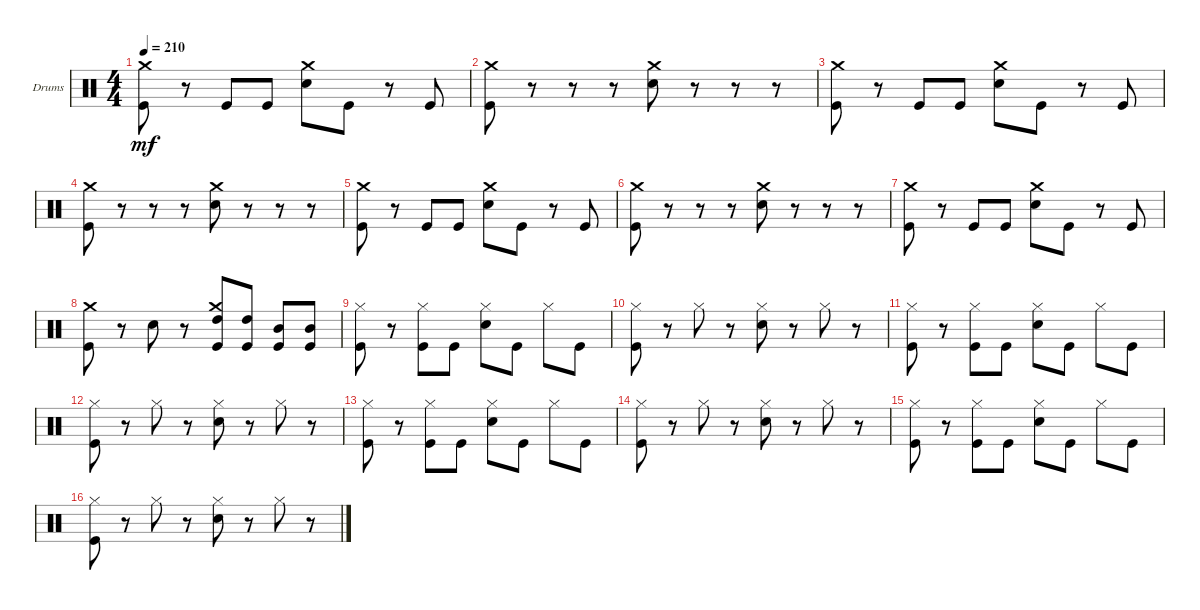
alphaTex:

\defaultSystemsLayout 4
\bracketExtendMode groupsimilarinstruments
\firstSystemTrackNameOrientation horizontal
\otherSystemsTrackNameOrientation horizontal
\track ("Dan Johnson (Drums)" "Drums") {instrument percussion}
\staff {score}
\articulation defaults
\ts (4 4)
\tempo 210
\clef neutral
\ks c
("Kick (hit)" "Crash medium (hit)").8{dy mf} r.8 "Kick (hit)".8 "Kick (hit)".8 ("Snare (hit) 2" "Crash medium (hit)").8 "Kick (hit)".8 r.8 "Kick (hit)".8 |
("Kick (hit)" "Crash medium (hit)").8 r.8 r.8 r.8 ("Snare (hit) 2" "Crash medium (hit)").8 r.8 r.8 r.8 |
("Kick (hit)" "Crash medium (hit)").8 r.8 "Kick (hit)".8 "Kick (hit)".8 ("Snare (hit) 2" "Crash medium (hit)").8 "Kick (hit)".8 r.8 "Kick (hit)".8 |
("Kick (hit)" "Crash medium (hit)").8 r.8 r.8 r.8 ("Snare (hit) 2" "Crash medium (hit)").8 r.8 r.8 r.8 |
("Kick (hit)" "Crash medium (hit)").8 r.8 "Kick (hit)".8 "Kick (hit)".8 ("Snare (hit) 2" "Crash medium (hit)").8 "Kick (hit)".8 r.8 "Kick (hit)".8 |
("Kick (hit)" "Crash medium (hit)").8 r.8 r.8 r.8 ("Snare (hit) 2" "Crash medium (hit)").8 r.8 r.8 r.8 |
("Kick (hit)" "Crash medium (hit)").8 r.8 "Kick (hit)".8 "Kick (hit)".8 ("Snare (hit) 2" "Crash medium (hit)").8 "Kick (hit)".8 r.8 "Kick (hit)".8 |
("Crash medium (hit)" "Kick (hit)").8 r.8 "Snare (hit) 2".8 r.8 ("Crash medium (hit)" "High Tom (hit)" "Kick (hit)").8 ("High Tom (hit)" "Kick (hit)").8 ("Mid Tom (hit)" "Kick (hit)").8 ("Mid Tom (hit)" "Kick (hit)").8 |
("Kick (hit)" "Hi-Hat (closed)").8 r.8 ("Kick (hit)" "Hi-Hat (closed)").8 "Kick (hit)".8 ("Snare (hit) 2" "Hi-Hat (closed)").8 "Kick (hit)".8 "Hi-Hat (closed)".8 "Kick (hit)".8 |
("Kick (hit)" "Hi-Hat (closed)").8 r.8 "Hi-Hat (closed)".8 r.8 ("Snare (hit) 2" "Hi-Hat (closed)").8 r.8 "Hi-Hat (closed)".8 r.8 |
("Kick (hit)" "Hi-Hat (closed)").8 r.8 ("Kick (hit)" "Hi-Hat (closed)").8 "Kick (hit)".8 ("Snare (hit) 2" "Hi-Hat (closed)").8 "Kick (hit)".8 "Hi-Hat (closed)".8 "Kick (hit)".8 |
("Kick (hit)" "Hi-Hat (closed)").8 r.8 "Hi-Hat (closed)".8 r.8 ("Snare (hit) 2" "Hi-Hat (closed)").8 r.8 "Hi-Hat (closed)".8 r.8 |
("Kick (hit)" "Hi-Hat (closed)").8 r.8 ("Kick (hit)" "Hi-Hat (closed)").8 "Kick (hit)".8 ("Snare (hit) 2" "Hi-Hat (closed)").8 "Kick (hit)".8 "Hi-Hat (closed)".8 "Kick (hit)".8 |
("Kick (hit)" "Hi-Hat (closed)").8 r.8 "Hi-Hat (closed)".8 r.8 ("Snare (hit) 2" "Hi-Hat (closed)").8 r.8 "Hi-Hat (closed)".8 r.8 |
("Kick (hit)" "Hi-Hat (closed)").8 r.8 ("Kick (hit)" "Hi-Hat (closed)").8 "Kick (hit)".8 ("Snare (hit) 2" "Hi-Hat (closed)").8 "Kick (hit)".8 "Hi-Hat (closed)".8 "Kick (hit)".8 |
("Kick (hit)" "Hi-Hat (closed)").8 r.8 "Hi-Hat (closed)".8 r.8 ("Snare (hit) 2" "Hi-Hat (closed)").8 r.8 "Hi-Hat (closed)".8 r.8
